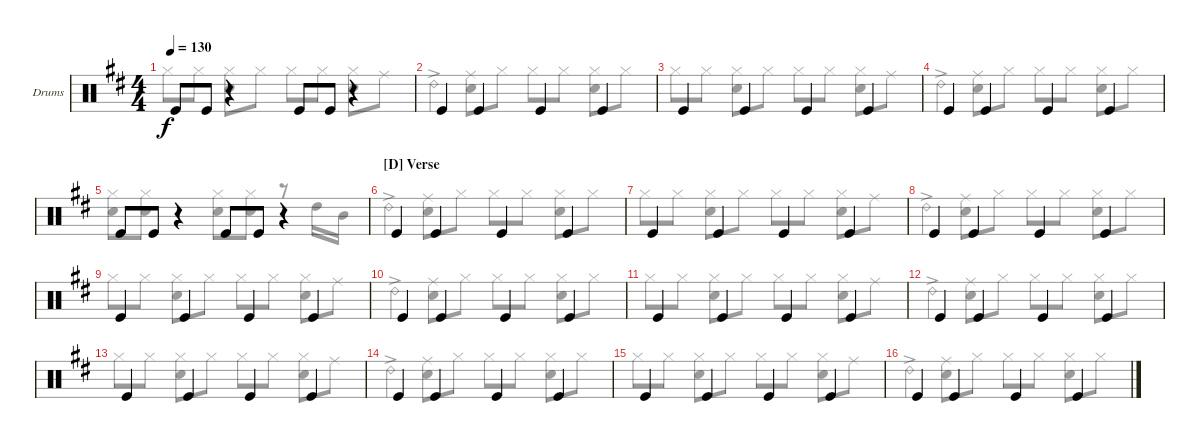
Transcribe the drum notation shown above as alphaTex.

\bracketExtendMode groupsimilarinstruments
\firstSystemTrackNameOrientation horizontal
\otherSystemsTrackNameOrientation horizontal
\track ("Drumkit" "Drums") {instrument percussion}
\staff {score}
\articulation defaults
\voice
\ts (4 4)
\tempo 130
\clef neutral
\scale
1.05044
\ks d "Kick (hit)".8{dy f} "Kick (hit)".8
r.4 "Kick (hit)".8 "Kick (hit)".8 r.4 |
\scale
0.949559 "Kick (hit)".4 "Kick (hit)".4 "Kick (hit)".4 "Kick (hit)".4 |
\scale
1.05044 "Kick (hit)".4 "Kick (hit)".4 "Kick (hit)".4 "Kick (hit)".4 |
\scale
0.949559 "Kick (hit)".4 "Kick (hit)".4 "Kick (hit)".4 "Kick (hit)".4 |
\scale
1.05044 "Kick (hit)".8 "Kick (hit)".8 r.4 "Kick (hit)".8 "Kick (hit)".8 r.4 |
\section ("D" "Verse")
\scale
0.949559 "Kick (hit)".4 "Kick (hit)".4 "Kick (hit)".4 "Kick (hit)".4 |
\scale
1.05044 "Kick (hit)".4 "Kick (hit)".4 "Kick (hit)".4 "Kick (hit)".4 |
\scale
0.949559 "Kick (hit)".4 "Kick (hit)".4 "Kick (hit)".4 "Kick (hit)".4 |
\scale
1.05044 "Kick (hit)".4 "Kick (hit)".4 "Kick (hit)".4 "Kick (hit)".4 |
\scale
0.949559 "Kick (hit)".4 "Kick (hit)".4 "Kick (hit)".4 "Kick (hit)".4 |
\scale
1.05044 "Kick (hit)".4 "Kick (hit)".4 "Kick (hit)".4 "Kick (hit)".4 |
\scale
0.949559 "Kick (hit)".4 "Kick (hit)".4 "Kick (hit)".4 "Kick (hit)".4 |
\scale
1.05044 "Kick (hit)".4 "Kick (hit)".4 "Kick (hit)".4 "Kick (hit)".4 |
\scale
0.949559 "Kick (hit)".4 "Kick (hit)".4 "Kick (hit)".4 "Kick (hit)".4 |
\scale
1.05044 "Kick (hit)".4 "Kick (hit)".4 "Kick (hit)".4 "Kick (hit)".4 |
\scale
0.949559 "Kick (hit)".4 "Kick (hit)".4 "Kick (hit)".4 "Kick (hit)".4
\voice
\clef neutral
\ottava regular
\simile none
\scale
1.05044
\ks d "Hi-Hat (closed)".8{dy f} "Hi-Hat (closed)".8
("Hi-Hat (closed)" "Snare (hit) 2").8 "Hi-Hat (closed)".8 "Hi-Hat (closed)".8 "Hi-Hat (closed)".8 ("Hi-Hat (closed)" "Snare (hit) 2").8 "Ride (middle)".8 |
\scale
0.949559 "Ride (bell) 2"{ac}.4 ("Snare (hit) 2" "Ride (middle)").8 "Hi-Hat (closed)".8 "Hi-Hat (closed)".8 "Hi-Hat (closed)".8 ("Hi-Hat (closed)" "Snare (hit) 2").8 "Hi-Hat (closed)".8 |
\scale
1.05044 "Hi-Hat (closed)".8 "Hi-Hat (closed)".8 ("Hi-Hat (closed)" "Snare (hit) 2").8 "Hi-Hat (closed)".8 "Hi-Hat (closed)".8 "Hi-Hat (closed)".8 ("Hi-Hat (closed)" "Snare (hit) 2").8 "Ride (middle)".8 |
\scale
0.949559 "Ride (bell) 2"{ac}.4 ("Snare (hit) 2" "Ride (middle)").8 "Hi-Hat (closed)".8 "Hi-Hat (closed)".8 "Hi-Hat (closed)".8 ("Hi-Hat (closed)" "Snare (hit) 2").8 "Hi-Hat (closed)".8 |
\scale
1.05044 ("Hi-Hat (closed)" "Snare (hit) 2").8 ("Hi-Hat (closed)" "Snare (hit) 2").8 r.4 ("Hi-Hat (closed)" "Snare (hit) 2").8 ("Hi-Hat (closed)" "Snare (hit) 2").8 r.8 "High Tom (hit)".16 "Mid Tom (hit)".16 |
\scale
0.949559 "Ride (bell) 2"{ac}.4 ("Snare (hit) 2" "Ride (middle)").8 "Hi-Hat (closed)".8 "Hi-Hat (closed)".8 "Hi-Hat (closed)".8 ("Hi-Hat (closed)" "Snare (hit) 2").8 "Hi-Hat (closed)".8 |
\scale
1.05044 "Hi-Hat (closed)".8 "Hi-Hat (closed)".8 ("Hi-Hat (closed)" "Snare (hit) 2").8 "Hi-Hat (closed)".8 "Hi-Hat (closed)".8 "Hi-Hat (closed)".8 ("Hi-Hat (closed)" "Snare (hit) 2").8 "Ride (middle)".8 |
\scale
0.949559 "Ride (bell) 2"{ac}.4 ("Snare (hit) 2" "Ride (middle)").8 "Hi-Hat (closed)".8 "Hi-Hat (closed)".8 "Hi-Hat (closed)".8 ("Hi-Hat (closed)" "Snare (hit) 2").8 "Hi-Hat (closed)".8 |
\scale
1.05044 "Hi-Hat (closed)".8 "Hi-Hat (closed)".8 ("Hi-Hat (closed)" "Snare (hit) 2").8 "Hi-Hat (closed)".8 "Hi-Hat (closed)".8 "Hi-Hat (closed)".8 ("Hi-Hat (closed)" "Snare (hit) 2").8 "Ride (middle)".8 |
\scale
0.949559 "Ride (bell) 2"{ac}.4 ("Snare (hit) 2" "Ride (middle)").8 "Hi-Hat (closed)".8 "Hi-Hat (closed)".8 "Hi-Hat (closed)".8 ("Hi-Hat (closed)" "Snare (hit) 2").8 "Hi-Hat (closed)".8 |
\scale
1.05044 "Hi-Hat (closed)".8 "Hi-Hat (closed)".8 ("Hi-Hat (closed)" "Snare (hit) 2").8 "Hi-Hat (closed)".8 "Hi-Hat (closed)".8 "Hi-Hat (closed)".8 ("Hi-Hat (closed)" "Snare (hit) 2").8 "Ride (middle)".8 |
\scale
0.949559 "Ride (bell) 2"{ac}.4 ("Snare (hit) 2" "Ride (middle)").8 "Hi-Hat (closed)".8 "Hi-Hat (closed)".8 "Hi-Hat (closed)".8 ("Hi-Hat (closed)" "Snare (hit) 2").8 "Hi-Hat (closed)".8 |
\scale
1.05044 "Hi-Hat (closed)".8 "Hi-Hat (closed)".8 ("Hi-Hat (closed)" "Snare (hit) 2").8 "Hi-Hat (closed)".8 "Hi-Hat (closed)".8 "Hi-Hat (closed)".8 ("Hi-Hat (closed)" "Snare (hit) 2").8 "Ride (middle)".8 |
\scale
0.949559 "Ride (bell) 2"{ac}.4 ("Snare (hit) 2" "Ride (middle)").8 "Hi-Hat (closed)".8 "Hi-Hat (closed)".8 "Hi-Hat (closed)".8 ("Hi-Hat (closed)" "Snare (hit) 2").8 "Hi-Hat (closed)".8 |
\scale
1.05044 "Hi-Hat (closed)".8 "Hi-Hat (closed)".8 ("Hi-Hat (closed)" "Snare (hit) 2").8 "Hi-Hat (closed)".8 "Hi-Hat (closed)".8 "Hi-Hat (closed)".8 ("Hi-Hat (closed)" "Snare (hit) 2").8 "Ride (middle)".8 |
\scale
0.949559 "Ride (bell) 2"{ac}.4 ("Snare (hit) 2" "Ride (middle)").8 "Hi-Hat (closed)".8 "Hi-Hat (closed)".8 "Hi-Hat (closed)".8 ("Hi-Hat (closed)" "Snare (hit) 2").8 "Hi-Hat (closed)".8
